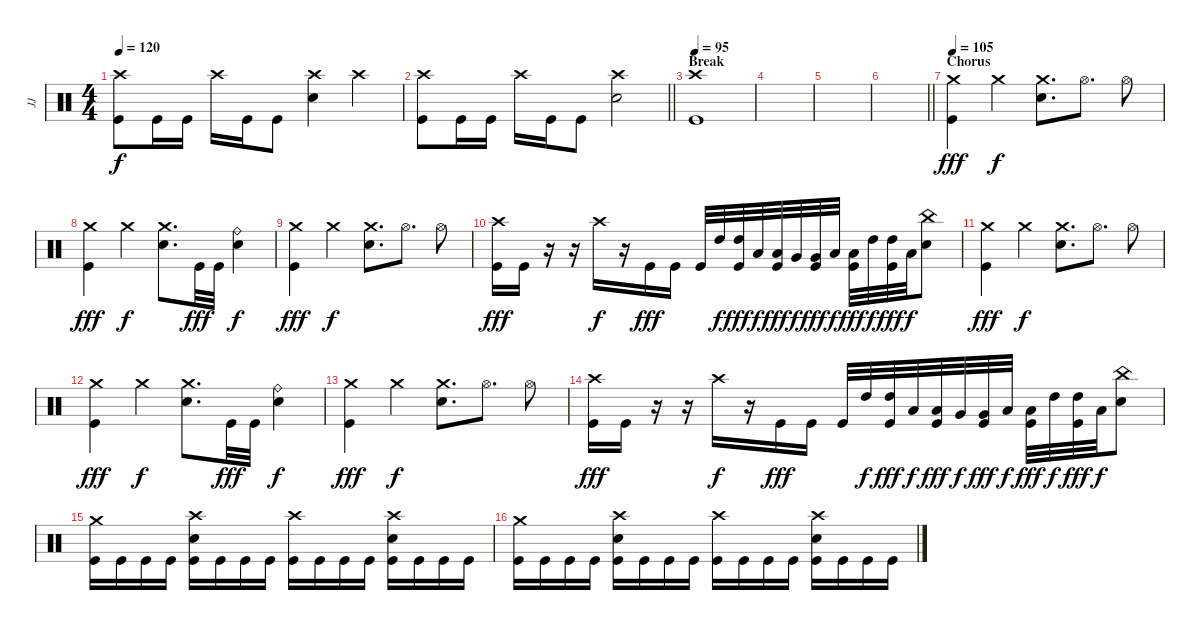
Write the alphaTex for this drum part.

\track ("JJ" "JJ") {instrument percussion}
\staff {score}
\articulation defaults
\ts (4 4)
\tempo 120
\clef neutral
\ks c
("Crash high (hit)" "Kick (hit)").8{dy f} "Kick (hit)".16 "Kick (hit)".16 "Crash high (hit)".16 "Kick (hit)".16 "Kick (hit)".8 ("Crash high (hit)" "Electric Snare (hit)").4 "Crash high (hit)".4 |
\barLineRight lightlight
("Crash high (hit)" "Kick (hit)").8 "Kick (hit)".16 "Kick (hit)".16 "Crash high (hit)".16 "Kick (hit)".16 "Kick (hit)".8 ("Crash high (hit)" "Electric Snare (hit)").2 |
\section ("" "Break")
\tempo 95
("Crash high (hit)" "Kick (hit)").1 |
|
|
\barLineRight lightlight
|
\section ("" "Chorus")
\tempo 105
("Crash medium (hit)" "Kick (hit)").4{dy fff} "Crash medium (hit)".4{dy f} ("Crash medium (hit)" "Electric Snare (hit)").8{d} "Hi-Hat (open)".8{d} "Hi-Hat (open)".8 |
("Crash medium (hit)" "Kick (hit)").4{dy fff} "Crash medium (hit)".4{dy f} ("Crash medium (hit)" "Electric Snare (hit)").8{d} "Kick (hit)".32{dy fff} "Kick (hit)".32 ("Ride (bell)" "Electric Snare (hit)").4{dy f} |
("Crash medium (hit)" "Kick (hit)").4{dy fff} "Crash medium (hit)".4{dy f} ("Crash medium (hit)" "Electric Snare (hit)").8{d} "Hi-Hat (open)".8{d} "Hi-Hat (open)".8 |
("Crash high (hit)" "Kick (hit)").16{dy fff} "Kick (hit)".16 r.16 r.16 "Crash high (hit)".16{dy f} r.16 "Kick (hit)".16{dy fff} "Kick (hit)".16 "Kick (hit)".32 "High Tom (hit)".32{dy f} ("High Tom (hit)" "Kick (hit)").32{dy fff} "Low Tom (hit)".32{dy f} ("Low Tom (hit)" "Kick (hit)").32{dy fff} "Very Low Tom (hit)".32{dy f} ("Very Low Tom (hit)" "Kick (hit)").32{dy fff} "Low Floor Tom (hit)".32{dy f} ("Low Floor Tom (hit)" "Kick (hit)").32{dy fff} "High Tom (hit)".32{dy f} ("High Tom (hit)" "Kick (hit)").32{dy fff} "Low Floor Tom (hit)".32{dy f} ("China (hit)" "Electric Snare (hit)").8 |
("Crash medium (hit)" "Kick (hit)").4{dy fff} "Crash medium (hit)".4{dy f} ("Crash medium (hit)" "Electric Snare (hit)").8{d} "Hi-Hat (open)".8{d} "Hi-Hat (open)".8 |
("Crash medium (hit)" "Kick (hit)").4{dy fff} "Crash medium (hit)".4{dy f} ("Crash medium (hit)" "Electric Snare (hit)").8{d} "Kick (hit)".32{dy fff} "Kick (hit)".32 ("Ride (bell)" "Electric Snare (hit)").4{dy f} |
("Crash medium (hit)" "Kick (hit)").4{dy fff} "Crash medium (hit)".4{dy f} ("Crash medium (hit)" "Electric Snare (hit)").8{d} "Hi-Hat (open)".8{d} "Hi-Hat (open)".8 |
("Crash high (hit)" "Kick (hit)").16{dy fff} "Kick (hit)".16 r.16 r.16 "Crash high (hit)".16{dy f} r.16 "Kick (hit)".16{dy fff} "Kick (hit)".16 "Kick (hit)".32 "High Tom (hit)".32{dy f} ("High Tom (hit)" "Kick (hit)").32{dy fff} "Low Tom (hit)".32{dy f} ("Low Tom (hit)" "Kick (hit)").32{dy fff} "Very Low Tom (hit)".32{dy f} ("Very Low Tom (hit)" "Kick (hit)").32{dy fff} "Low Floor Tom (hit)".32{dy f} ("Low Floor Tom (hit)" "Kick (hit)").32{dy fff} "High Tom (hit)".32{dy f} ("High Tom (hit)" "Kick (hit)").32{dy fff} "Low Floor Tom (hit)".32{dy f} ("China (hit)" "Electric Snare (hit)").8 |
("Crash medium (hit)" "Kick (hit)").16 "Kick (hit)".16 "Kick (hit)".16 "Kick (hit)".16 ("Crash high (hit)" "Electric Snare (hit)" "Kick (hit)").16 "Kick (hit)".16 "Kick (hit)".16 "Kick (hit)".16 ("Crash high (hit)" "Kick (hit)").16 "Kick (hit)".16 "Kick (hit)".16 "Kick (hit)".16 ("Crash high (hit)" "Electric Snare (hit)" "Kick (hit)").16 "Kick (hit)".16 "Kick (hit)".16 "Kick (hit)".16 |
("Crash medium (hit)" "Kick (hit)").16 "Kick (hit)".16 "Kick (hit)".16 "Kick (hit)".16 ("Crash high (hit)" "Electric Snare (hit)" "Kick (hit)").16 "Kick (hit)".16 "Kick (hit)".16 "Kick (hit)".16 ("Crash high (hit)" "Kick (hit)").16 "Kick (hit)".16 "Kick (hit)".16 "Kick (hit)".16 ("Crash high (hit)" "Electric Snare (hit)" "Kick (hit)").16 "Kick (hit)".16 "Kick (hit)".16 "Kick (hit)".16
